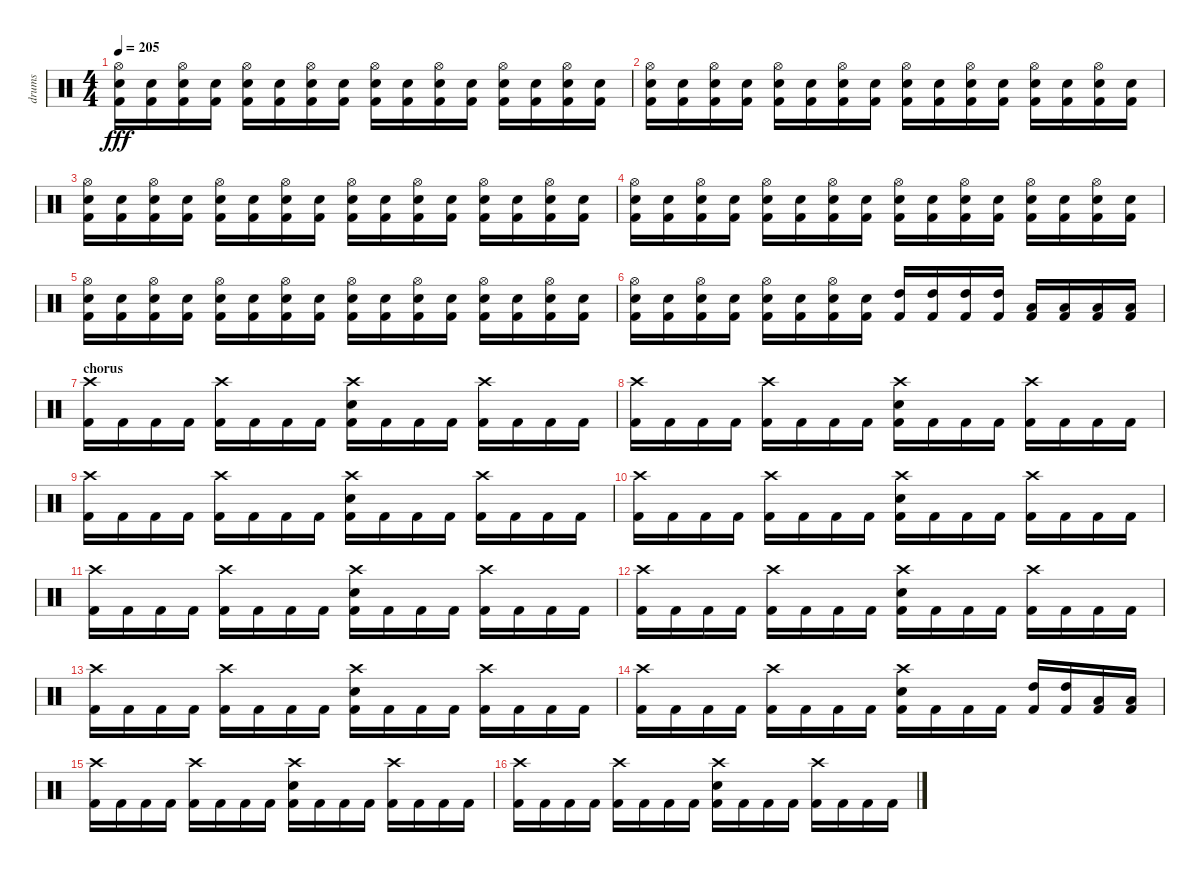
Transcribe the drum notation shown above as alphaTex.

\track ("drums" "drums") {instrument percussion}
\staff {score}
\articulation defaults
\ts (4 4)
\tempo 205
\clef neutral
\ks c
("Hi-Hat (open)" "Electric Snare (hit)" "Kick (hit) 2").16{dy fff} ("Electric Snare (hit)" "Kick (hit) 2").16 ("Hi-Hat (open)" "Electric Snare (hit)" "Kick (hit) 2").16 ("Electric Snare (hit)" "Kick (hit) 2").16 ("Hi-Hat (open)" "Electric Snare (hit)" "Kick (hit) 2").16 ("Electric Snare (hit)" "Kick (hit) 2").16 ("Hi-Hat (open)" "Electric Snare (hit)" "Kick (hit) 2").16 ("Electric Snare (hit)" "Kick (hit) 2").16 ("Hi-Hat (open)" "Electric Snare (hit)" "Kick (hit) 2").16 ("Electric Snare (hit)" "Kick (hit) 2").16 ("Hi-Hat (open)" "Electric Snare (hit)" "Kick (hit) 2").16 ("Electric Snare (hit)" "Kick (hit) 2").16 ("Hi-Hat (open)" "Electric Snare (hit)" "Kick (hit) 2").16 ("Electric Snare (hit)" "Kick (hit) 2").16 ("Hi-Hat (open)" "Electric Snare (hit)" "Kick (hit) 2").16 ("Electric Snare (hit)" "Kick (hit) 2").16 |
("Hi-Hat (open)" "Electric Snare (hit)" "Kick (hit) 2").16 ("Electric Snare (hit)" "Kick (hit) 2").16 ("Hi-Hat (open)" "Electric Snare (hit)" "Kick (hit) 2").16 ("Electric Snare (hit)" "Kick (hit) 2").16 ("Hi-Hat (open)" "Electric Snare (hit)" "Kick (hit) 2").16 ("Electric Snare (hit)" "Kick (hit) 2").16 ("Hi-Hat (open)" "Electric Snare (hit)" "Kick (hit) 2").16 ("Electric Snare (hit)" "Kick (hit) 2").16 ("Hi-Hat (open)" "Electric Snare (hit)" "Kick (hit) 2").16 ("Electric Snare (hit)" "Kick (hit) 2").16 ("Hi-Hat (open)" "Electric Snare (hit)" "Kick (hit) 2").16 ("Electric Snare (hit)" "Kick (hit) 2").16 ("Hi-Hat (open)" "Electric Snare (hit)" "Kick (hit) 2").16 ("Electric Snare (hit)" "Kick (hit) 2").16 ("Hi-Hat (open)" "Electric Snare (hit)" "Kick (hit) 2").16 ("Electric Snare (hit)" "Kick (hit) 2").16 |
("Hi-Hat (open)" "Electric Snare (hit)" "Kick (hit) 2").16 ("Electric Snare (hit)" "Kick (hit) 2").16 ("Hi-Hat (open)" "Electric Snare (hit)" "Kick (hit) 2").16 ("Electric Snare (hit)" "Kick (hit) 2").16 ("Hi-Hat (open)" "Electric Snare (hit)" "Kick (hit) 2").16 ("Electric Snare (hit)" "Kick (hit) 2").16 ("Hi-Hat (open)" "Electric Snare (hit)" "Kick (hit) 2").16 ("Electric Snare (hit)" "Kick (hit) 2").16 ("Hi-Hat (open)" "Electric Snare (hit)" "Kick (hit) 2").16 ("Electric Snare (hit)" "Kick (hit) 2").16 ("Hi-Hat (open)" "Electric Snare (hit)" "Kick (hit) 2").16 ("Electric Snare (hit)" "Kick (hit) 2").16 ("Hi-Hat (open)" "Electric Snare (hit)" "Kick (hit) 2").16 ("Electric Snare (hit)" "Kick (hit) 2").16 ("Hi-Hat (open)" "Electric Snare (hit)" "Kick (hit) 2").16 ("Electric Snare (hit)" "Kick (hit) 2").16 |
("Hi-Hat (open)" "Electric Snare (hit)" "Kick (hit) 2").16 ("Electric Snare (hit)" "Kick (hit) 2").16 ("Hi-Hat (open)" "Electric Snare (hit)" "Kick (hit) 2").16 ("Electric Snare (hit)" "Kick (hit) 2").16 ("Hi-Hat (open)" "Electric Snare (hit)" "Kick (hit) 2").16 ("Electric Snare (hit)" "Kick (hit) 2").16 ("Hi-Hat (open)" "Electric Snare (hit)" "Kick (hit) 2").16 ("Electric Snare (hit)" "Kick (hit) 2").16 ("Hi-Hat (open)" "Electric Snare (hit)" "Kick (hit) 2").16 ("Electric Snare (hit)" "Kick (hit) 2").16 ("Hi-Hat (open)" "Electric Snare (hit)" "Kick (hit) 2").16 ("Electric Snare (hit)" "Kick (hit) 2").16 ("Hi-Hat (open)" "Electric Snare (hit)" "Kick (hit) 2").16 ("Electric Snare (hit)" "Kick (hit) 2").16 ("Hi-Hat (open)" "Electric Snare (hit)" "Kick (hit) 2").16 ("Electric Snare (hit)" "Kick (hit) 2").16 |
("Hi-Hat (open)" "Electric Snare (hit)" "Kick (hit) 2").16 ("Electric Snare (hit)" "Kick (hit) 2").16 ("Hi-Hat (open)" "Electric Snare (hit)" "Kick (hit) 2").16 ("Electric Snare (hit)" "Kick (hit) 2").16 ("Hi-Hat (open)" "Electric Snare (hit)" "Kick (hit) 2").16 ("Electric Snare (hit)" "Kick (hit) 2").16 ("Hi-Hat (open)" "Electric Snare (hit)" "Kick (hit) 2").16 ("Electric Snare (hit)" "Kick (hit) 2").16 ("Hi-Hat (open)" "Electric Snare (hit)" "Kick (hit) 2").16 ("Electric Snare (hit)" "Kick (hit) 2").16 ("Hi-Hat (open)" "Electric Snare (hit)" "Kick (hit) 2").16 ("Electric Snare (hit)" "Kick (hit) 2").16 ("Hi-Hat (open)" "Electric Snare (hit)" "Kick (hit) 2").16 ("Electric Snare (hit)" "Kick (hit) 2").16 ("Hi-Hat (open)" "Electric Snare (hit)" "Kick (hit) 2").16 ("Electric Snare (hit)" "Kick (hit) 2").16 |
("Hi-Hat (open)" "Electric Snare (hit)" "Kick (hit) 2").16 ("Electric Snare (hit)" "Kick (hit) 2").16 ("Hi-Hat (open)" "Electric Snare (hit)" "Kick (hit) 2").16 ("Electric Snare (hit)" "Kick (hit) 2").16 ("Hi-Hat (open)" "Electric Snare (hit)" "Kick (hit) 2").16 ("Electric Snare (hit)" "Kick (hit) 2").16 ("Hi-Hat (open)" "Electric Snare (hit)" "Kick (hit) 2").16 ("Electric Snare (hit)" "Kick (hit) 2").16 ("High Tom (hit)" "Kick (hit) 2").16 ("High Tom (hit)" "Kick (hit) 2").16 ("High Tom (hit)" "Kick (hit) 2").16 ("High Tom (hit)" "Kick (hit) 2").16 ("Low Tom (hit)" "Kick (hit) 2").16 ("Low Tom (hit)" "Kick (hit) 2").16 ("Low Tom (hit)" "Kick (hit) 2").16 ("Low Tom (hit)" "Kick (hit) 2").16 |
\section ("" "chorus")
("Crash high (hit)" "Kick (hit) 2").16 "Kick (hit) 2".16 "Kick (hit) 2".16 "Kick (hit) 2".16 ("Crash high (hit)" "Kick (hit) 2").16 "Kick (hit) 2".16 "Kick (hit) 2".16 "Kick (hit) 2".16 ("Crash high (hit)" "Electric Snare (hit)" "Kick (hit) 2").16 "Kick (hit) 2".16 "Kick (hit) 2".16 "Kick (hit) 2".16 ("Crash high (hit)" "Kick (hit) 2").16 "Kick (hit) 2".16 "Kick (hit) 2".16 "Kick (hit) 2".16 |
("Crash high (hit)" "Kick (hit) 2").16 "Kick (hit) 2".16 "Kick (hit) 2".16 "Kick (hit) 2".16 ("Crash high (hit)" "Kick (hit) 2").16 "Kick (hit) 2".16 "Kick (hit) 2".16 "Kick (hit) 2".16 ("Crash high (hit)" "Electric Snare (hit)" "Kick (hit) 2").16 "Kick (hit) 2".16 "Kick (hit) 2".16 "Kick (hit) 2".16 ("Crash high (hit)" "Kick (hit) 2").16 "Kick (hit) 2".16 "Kick (hit) 2".16 "Kick (hit) 2".16 |
("Crash high (hit)" "Kick (hit) 2").16 "Kick (hit) 2".16 "Kick (hit) 2".16 "Kick (hit) 2".16 ("Crash high (hit)" "Kick (hit) 2").16 "Kick (hit) 2".16 "Kick (hit) 2".16 "Kick (hit) 2".16 ("Crash high (hit)" "Electric Snare (hit)" "Kick (hit) 2").16 "Kick (hit) 2".16 "Kick (hit) 2".16 "Kick (hit) 2".16 ("Crash high (hit)" "Kick (hit) 2").16 "Kick (hit) 2".16 "Kick (hit) 2".16 "Kick (hit) 2".16 |
("Crash high (hit)" "Kick (hit) 2").16 "Kick (hit) 2".16 "Kick (hit) 2".16 "Kick (hit) 2".16 ("Crash high (hit)" "Kick (hit) 2").16 "Kick (hit) 2".16 "Kick (hit) 2".16 "Kick (hit) 2".16 ("Crash high (hit)" "Electric Snare (hit)" "Kick (hit) 2").16 "Kick (hit) 2".16 "Kick (hit) 2".16 "Kick (hit) 2".16 ("Crash high (hit)" "Kick (hit) 2").16 "Kick (hit) 2".16 "Kick (hit) 2".16 "Kick (hit) 2".16 |
("Crash high (hit)" "Kick (hit) 2").16 "Kick (hit) 2".16 "Kick (hit) 2".16 "Kick (hit) 2".16 ("Crash high (hit)" "Kick (hit) 2").16 "Kick (hit) 2".16 "Kick (hit) 2".16 "Kick (hit) 2".16 ("Crash high (hit)" "Electric Snare (hit)" "Kick (hit) 2").16 "Kick (hit) 2".16 "Kick (hit) 2".16 "Kick (hit) 2".16 ("Crash high (hit)" "Kick (hit) 2").16 "Kick (hit) 2".16 "Kick (hit) 2".16 "Kick (hit) 2".16 |
("Crash high (hit)" "Kick (hit) 2").16 "Kick (hit) 2".16 "Kick (hit) 2".16 "Kick (hit) 2".16 ("Crash high (hit)" "Kick (hit) 2").16 "Kick (hit) 2".16 "Kick (hit) 2".16 "Kick (hit) 2".16 ("Crash high (hit)" "Electric Snare (hit)" "Kick (hit) 2").16 "Kick (hit) 2".16 "Kick (hit) 2".16 "Kick (hit) 2".16 ("Crash high (hit)" "Kick (hit) 2").16 "Kick (hit) 2".16 "Kick (hit) 2".16 "Kick (hit) 2".16 |
("Crash high (hit)" "Kick (hit) 2").16 "Kick (hit) 2".16 "Kick (hit) 2".16 "Kick (hit) 2".16 ("Crash high (hit)" "Kick (hit) 2").16 "Kick (hit) 2".16 "Kick (hit) 2".16 "Kick (hit) 2".16 ("Crash high (hit)" "Electric Snare (hit)" "Kick (hit) 2").16 "Kick (hit) 2".16 "Kick (hit) 2".16 "Kick (hit) 2".16 ("Crash high (hit)" "Kick (hit) 2").16 "Kick (hit) 2".16 "Kick (hit) 2".16 "Kick (hit) 2".16 |
("Crash high (hit)" "Kick (hit) 2").16 "Kick (hit) 2".16 "Kick (hit) 2".16 "Kick (hit) 2".16 ("Crash high (hit)" "Kick (hit) 2").16 "Kick (hit) 2".16 "Kick (hit) 2".16 "Kick (hit) 2".16 ("Crash high (hit)" "Electric Snare (hit)" "Kick (hit) 2").16 "Kick (hit) 2".16 "Kick (hit) 2".16 "Kick (hit) 2".16 ("High Tom (hit)" "Kick (hit) 2").16 ("High Tom (hit)" "Kick (hit) 2").16 ("Low Tom (hit)" "Kick (hit) 2").16 ("Low Tom (hit)" "Kick (hit) 2").16 |
("Crash high (hit)" "Kick (hit) 2").16 "Kick (hit) 2".16 "Kick (hit) 2".16 "Kick (hit) 2".16 ("Crash high (hit)" "Kick (hit) 2").16 "Kick (hit) 2".16 "Kick (hit) 2".16 "Kick (hit) 2".16 ("Crash high (hit)" "Electric Snare (hit)" "Kick (hit) 2").16 "Kick (hit) 2".16 "Kick (hit) 2".16 "Kick (hit) 2".16 ("Crash high (hit)" "Kick (hit) 2").16 "Kick (hit) 2".16 "Kick (hit) 2".16 "Kick (hit) 2".16 |
("Crash high (hit)" "Kick (hit) 2").16 "Kick (hit) 2".16 "Kick (hit) 2".16 "Kick (hit) 2".16 ("Crash high (hit)" "Kick (hit) 2").16 "Kick (hit) 2".16 "Kick (hit) 2".16 "Kick (hit) 2".16 ("Crash high (hit)" "Electric Snare (hit)" "Kick (hit) 2").16 "Kick (hit) 2".16 "Kick (hit) 2".16 "Kick (hit) 2".16 ("Crash high (hit)" "Kick (hit) 2").16 "Kick (hit) 2".16 "Kick (hit) 2".16 "Kick (hit) 2".16
